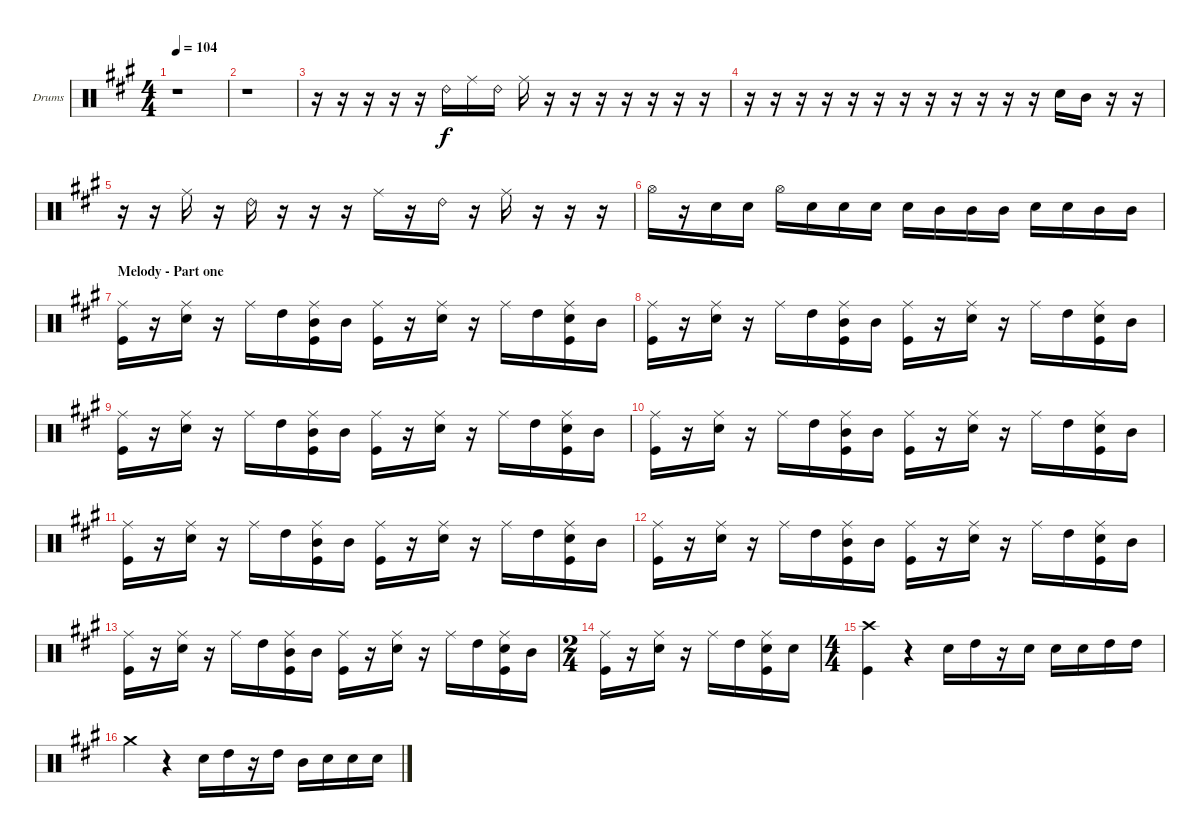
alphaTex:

\bracketExtendMode groupsimilarinstruments
\firstSystemTrackNameOrientation horizontal
\otherSystemsTrackNameOrientation horizontal
\track ("Drumkit" "Drums") {instrument percussion}
\staff {score}
\articulation defaults
\ts (4 4)
\beaming (8 2 2 2 2)
\tempo 104
\clef neutral
\ks a
r.1{dy f} |
r.1 |
r.16 r.16 r.16 r.16 r.16 "Ride (bell) 2".16 "Ride (middle)".16 "Ride (bell) 2".16 "Ride (middle)".16 r.16 r.16 r.16 r.16 r.16 r.16 r.16 |
r.16 r.16 r.16 r.16 r.16 r.16 r.16 r.16 r.16 r.16 r.16 r.16 "Snare (hit) 2".16 "Mid Tom (hit)".16 r.16 r.16 |
r.16 r.16 "Ride (middle)".16 r.16 "Ride (bell) 2".16 r.16 r.16 r.16 "Ride (middle)".16 r.16 "Ride (bell) 2".16 r.16 "Ride (middle)".16 r.16 r.16 r.16 |
"Hi-Hat (open)".16 r.16 "Snare (hit) 2".16 "Snare (hit) 2".16 "Hi-Hat (open)".16 "Snare (hit) 2".16 "Snare (hit) 2".16 "Snare (hit) 2".16 "Snare (hit) 2".16 "Mid Tom (hit)".16 "Mid Tom (hit)".16 "Mid Tom (hit)".16 "Snare (hit) 2".16 "Snare (hit) 2".16 "Mid Tom (hit)".16 "Mid Tom (hit)".16 |
\section ("" "Melody - Part one")
("Ride (middle)" "Kick (hit)").16 r.16 ("Ride (middle)" "Snare (hit) 2").16 r.16 "Ride (middle)".16 "High Tom (hit)".16 ("Ride (middle)" "Mid Tom (hit)" "Kick (hit)").16 "Mid Tom (hit)".16 ("Ride (middle)" "Kick (hit)").16 r.16 ("Ride (middle)" "Snare (hit) 2").16 r.16 "Ride (middle)".16 "High Tom (hit)".16 ("Ride (middle)" "Snare (hit) 2" "Kick (hit)").16 "Mid Tom (hit)".16 |
("Ride (middle)" "Kick (hit)").16 r.16 ("Ride (middle)" "Snare (hit) 2").16 r.16 "Ride (middle)".16 "High Tom (hit)".16 ("Ride (middle)" "Mid Tom (hit)" "Kick (hit)").16 "Mid Tom (hit)".16 ("Ride (middle)" "Kick (hit)").16 r.16 ("Ride (middle)" "Snare (hit) 2").16 r.16 "Ride (middle)".16 "High Tom (hit)".16 ("Ride (middle)" "Snare (hit) 2" "Kick (hit)").16 "Mid Tom (hit)".16 |
("Ride (middle)" "Kick (hit)").16 r.16 ("Ride (middle)" "Snare (hit) 2").16 r.16 "Ride (middle)".16 "High Tom (hit)".16 ("Ride (middle)" "Mid Tom (hit)" "Kick (hit)").16 "Mid Tom (hit)".16 ("Ride (middle)" "Kick (hit)").16 r.16 ("Ride (middle)" "Snare (hit) 2").16 r.16 "Ride (middle)".16 "High Tom (hit)".16 ("Ride (middle)" "Snare (hit) 2" "Kick (hit)").16 "Mid Tom (hit)".16 |
("Ride (middle)" "Kick (hit)").16 r.16 ("Ride (middle)" "Snare (hit) 2").16 r.16 "Ride (middle)".16 "High Tom (hit)".16 ("Ride (middle)" "Mid Tom (hit)" "Kick (hit)").16 "Mid Tom (hit)".16 ("Ride (middle)" "Kick (hit)").16 r.16 ("Ride (middle)" "Snare (hit) 2").16 r.16 "Ride (middle)".16 "High Tom (hit)".16 ("Ride (middle)" "Snare (hit) 2" "Kick (hit)").16 "Mid Tom (hit)".16 |
("Ride (middle)" "Kick (hit)").16 r.16 ("Ride (middle)" "Snare (hit) 2").16 r.16 "Ride (middle)".16 "High Tom (hit)".16 ("Ride (middle)" "Mid Tom (hit)" "Kick (hit)").16 "Mid Tom (hit)".16 ("Ride (middle)" "Kick (hit)").16 r.16 ("Ride (middle)" "Snare (hit) 2").16 r.16 "Ride (middle)".16 "High Tom (hit)".16 ("Ride (middle)" "Snare (hit) 2" "Kick (hit)").16 "Mid Tom (hit)".16 |
("Ride (middle)" "Kick (hit)").16 r.16 ("Ride (middle)" "Snare (hit) 2").16 r.16 "Ride (middle)".16 "High Tom (hit)".16 ("Ride (middle)" "Mid Tom (hit)" "Kick (hit)").16 "Mid Tom (hit)".16 ("Ride (middle)" "Kick (hit)").16 r.16 ("Ride (middle)" "Snare (hit) 2").16 r.16 "Ride (middle)".16 "High Tom (hit)".16 ("Ride (middle)" "Snare (hit) 2" "Kick (hit)").16 "Mid Tom (hit)".16 |
("Ride (middle)" "Kick (hit)").16 r.16 ("Ride (middle)" "Snare (hit) 2").16 r.16 "Ride (middle)".16 "High Tom (hit)".16 ("Ride (middle)" "Mid Tom (hit)" "Kick (hit)").16 "Mid Tom (hit)".16 ("Ride (middle)" "Kick (hit)").16 r.16 ("Ride (middle)" "Snare (hit) 2").16 r.16 "Ride (middle)".16 "High Tom (hit)".16 ("Ride (middle)" "Snare (hit) 2" "Kick (hit)").16 "Mid Tom (hit)".16 |
\ts (2 4)
("Ride (middle)" "Kick (hit)").16 r.16 ("Ride (middle)" "Snare (hit) 2").16 r.16 "Ride (middle)".16 "High Tom (hit)".16 ("Ride (middle)" "Snare (hit) 2" "Kick (hit)").16 "Snare (hit) 2".16 |
\ts (4 4)
("Crash high (hit)" "Kick (hit)").4 r.4 "Snare (hit) 2".16 "High Tom (hit)".16 r.16 "Snare (hit) 2".16 "Snare (hit) 2".16 "Snare (hit) 2".16 "High Tom (hit)".16 "High Tom (hit)".16 |
"Crash medium (hit)".4 r.4 "Snare (hit) 2".16 "High Tom (hit)".16 r.16 "High Tom (hit)".16 "Mid Tom (hit)".16 "Snare (hit) 2".16 "Snare (hit) 2".16 "Snare (hit) 2".16
